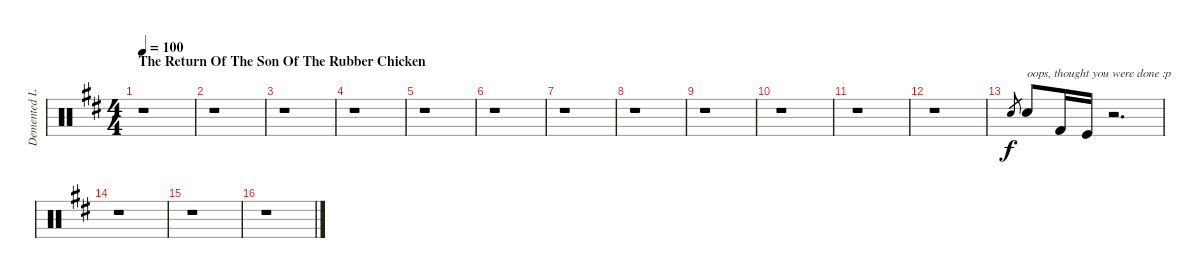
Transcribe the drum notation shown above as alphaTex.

\track ("Demented Leming (Drums)" "Demented L") {instrument percussion}
\staff {score}
\articulation defaults
\ts (4 4)
\section ("" "The Return Of The Son Of The Rubber Chicken")
\tempo 100
\clef neutral
\ks d
r.1{dy f} |
r.1 |
r.1 |
r.1 |
r.1 |
r.1 |
r.1 |
r.1 |
r.1 |
r.1 |
r.1 |
r.1 |
"Snare (hit) 2".8{gr} "Snare (hit) 2".8{txt "oops, thought you were done :p"} "Kick (hit) 2".16 "Kick (hit)".16 r.2{d} |
r.1 |
r.1 |
r.1
